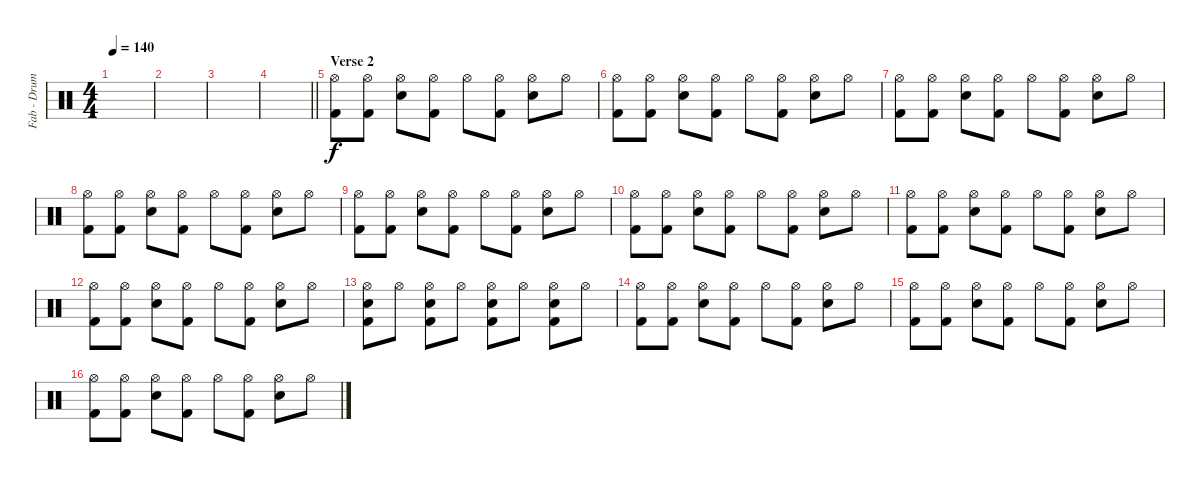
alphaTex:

\track ("Fab - Drums MIDI" "Fab - Drum") {instrument percussion}
\staff {score}
\articulation defaults
\ts (4 4)
\tempo 140
\clef neutral
\ks c
|
|
|
\barLineRight lightlight
|
\section ("" "Verse 2")
("Hi-Hat (open)" "Kick (hit) 2").8 ("Hi-Hat (open)" "Kick (hit) 2").8 ("Hi-Hat (open)" "Snare (hit) 2").8 ("Hi-Hat (open)" "Kick (hit) 2").8 "Hi-Hat (open)".8 ("Hi-Hat (open)" "Kick (hit) 2").8 ("Hi-Hat (open)" "Snare (hit) 2").8 "Hi-Hat (open)".8 |
("Hi-Hat (open)" "Kick (hit) 2").8 ("Hi-Hat (open)" "Kick (hit) 2").8 ("Hi-Hat (open)" "Snare (hit) 2").8 ("Hi-Hat (open)" "Kick (hit) 2").8 "Hi-Hat (open)".8 ("Hi-Hat (open)" "Kick (hit) 2").8 ("Hi-Hat (open)" "Snare (hit) 2").8 "Hi-Hat (open)".8 |
("Hi-Hat (open)" "Kick (hit) 2").8 ("Hi-Hat (open)" "Kick (hit) 2").8 ("Hi-Hat (open)" "Snare (hit) 2").8 ("Hi-Hat (open)" "Kick (hit) 2").8 "Hi-Hat (open)".8 ("Hi-Hat (open)" "Kick (hit) 2").8 ("Hi-Hat (open)" "Snare (hit) 2").8 "Hi-Hat (open)".8 |
("Hi-Hat (open)" "Kick (hit) 2").8 ("Hi-Hat (open)" "Kick (hit) 2").8 ("Hi-Hat (open)" "Snare (hit) 2").8 ("Hi-Hat (open)" "Kick (hit) 2").8 "Hi-Hat (open)".8 ("Hi-Hat (open)" "Kick (hit) 2").8 ("Hi-Hat (open)" "Snare (hit) 2").8 "Hi-Hat (open)".8 |
("Hi-Hat (open)" "Kick (hit) 2").8 ("Hi-Hat (open)" "Kick (hit) 2").8 ("Hi-Hat (open)" "Snare (hit) 2").8 ("Hi-Hat (open)" "Kick (hit) 2").8 "Hi-Hat (open)".8 ("Hi-Hat (open)" "Kick (hit) 2").8 ("Hi-Hat (open)" "Snare (hit) 2").8 "Hi-Hat (open)".8 |
("Hi-Hat (open)" "Kick (hit) 2").8 ("Hi-Hat (open)" "Kick (hit) 2").8 ("Hi-Hat (open)" "Snare (hit) 2").8 ("Hi-Hat (open)" "Kick (hit) 2").8 "Hi-Hat (open)".8 ("Hi-Hat (open)" "Kick (hit) 2").8 ("Hi-Hat (open)" "Snare (hit) 2").8 "Hi-Hat (open)".8 |
("Hi-Hat (open)" "Kick (hit) 2").8 ("Hi-Hat (open)" "Kick (hit) 2").8 ("Hi-Hat (open)" "Snare (hit) 2").8 ("Hi-Hat (open)" "Kick (hit) 2").8 "Hi-Hat (open)".8 ("Hi-Hat (open)" "Kick (hit) 2").8 ("Hi-Hat (open)" "Snare (hit) 2").8 "Hi-Hat (open)".8 |
("Hi-Hat (open)" "Kick (hit) 2").8 ("Hi-Hat (open)" "Kick (hit) 2").8 ("Hi-Hat (open)" "Snare (hit) 2").8 ("Hi-Hat (open)" "Kick (hit) 2").8 "Hi-Hat (open)".8 ("Hi-Hat (open)" "Kick (hit) 2").8 ("Hi-Hat (open)" "Snare (hit) 2").8 "Hi-Hat (open)".8 |
("Hi-Hat (open)" "Snare (hit) 2" "Kick (hit) 2").8 "Hi-Hat (open)".8 ("Hi-Hat (open)" "Snare (hit) 2" "Kick (hit) 2").8 "Hi-Hat (open)".8 ("Hi-Hat (open)" "Snare (hit) 2" "Kick (hit) 2").8 "Hi-Hat (open)".8 ("Hi-Hat (open)" "Snare (hit) 2" "Kick (hit) 2").8 "Hi-Hat (open)".8 |
("Hi-Hat (open)" "Kick (hit) 2").8 ("Hi-Hat (open)" "Kick (hit) 2").8 ("Hi-Hat (open)" "Snare (hit) 2").8 ("Hi-Hat (open)" "Kick (hit) 2").8 "Hi-Hat (open)".8 ("Hi-Hat (open)" "Kick (hit) 2").8 ("Hi-Hat (open)" "Snare (hit) 2").8 "Hi-Hat (open)".8 |
("Hi-Hat (open)" "Kick (hit) 2").8 ("Hi-Hat (open)" "Kick (hit) 2").8 ("Hi-Hat (open)" "Snare (hit) 2").8 ("Hi-Hat (open)" "Kick (hit) 2").8 "Hi-Hat (open)".8 ("Hi-Hat (open)" "Kick (hit) 2").8 ("Hi-Hat (open)" "Snare (hit) 2").8 "Hi-Hat (open)".8 |
("Hi-Hat (open)" "Kick (hit) 2").8 ("Hi-Hat (open)" "Kick (hit) 2").8 ("Hi-Hat (open)" "Snare (hit) 2").8 ("Hi-Hat (open)" "Kick (hit) 2").8 "Hi-Hat (open)".8 ("Hi-Hat (open)" "Kick (hit) 2").8 ("Hi-Hat (open)" "Snare (hit) 2").8 "Hi-Hat (open)".8
